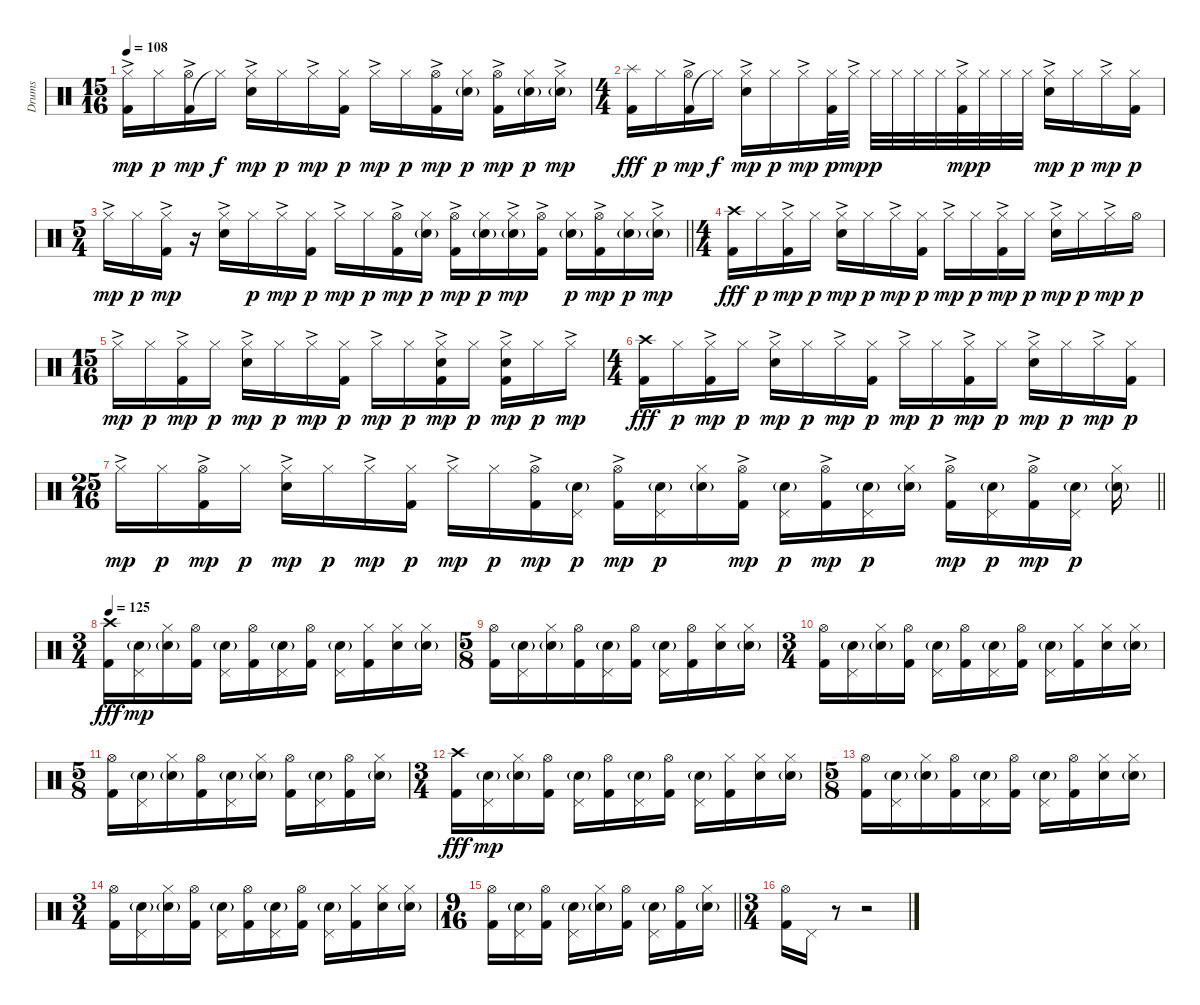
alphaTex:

\track ("Drums" "Drums") {instrument percussion}
\staff {score}
\articulation defaults
\ts (15 16)
\tempo 108
\clef neutral
\ks c
("Kick (hit) 2" "Hi-Hat (closed)"{ac}).16{dy mp} "Hi-Hat (closed)".16{dy p} ("Kick (hit) 2" "Hi-Hat (open)"{ac}).16{dy mp} "Hi-Hat (closed)"{t}.16{dy f} ("Electric Snare (hit)" "Hi-Hat (closed)"{ac}).16{dy mp} "Hi-Hat (closed)".16{dy p} "Hi-Hat (closed)"{ac}.16{dy mp} ("Kick (hit) 2" "Hi-Hat (closed)").16{dy p} "Hi-Hat (closed)"{ac}.16{dy mp} "Hi-Hat (closed)".16{dy p} ("Kick (hit) 2" "Hi-Hat (open)"{ac}).16{dy mp} ("Electric Snare (hit)"{g} "Hi-Hat (closed)").16{dy p} ("Kick (hit) 2" "Hi-Hat (open)"{ac}).16{dy mp} ("Electric Snare (hit)"{g} "Hi-Hat (closed)").16{dy p} ("Electric Snare (hit)"{g} "Hi-Hat (closed)"{ac}).16{dy mp} |
\ts (4 4)
("Kick (hit) 2" "Splash (hit)").16{dy fff} "Hi-Hat (closed)".16{dy p} ("Kick (hit) 2" "Hi-Hat (open)"{ac}).16{dy mp} "Hi-Hat (closed)"{t}.16{dy f} ("Electric Snare (hit)" "Hi-Hat (closed)"{ac}).16{dy mp} "Hi-Hat (closed)".16{dy p} "Hi-Hat (closed)"{ac}.16{dy mp} ("Kick (hit) 2" "Hi-Hat (closed)").32{dy p} "Hi-Hat (closed)"{ac}.32{dy mp} "Hi-Hat (closed)".32{dy p} "Hi-Hat (closed)".32 "Hi-Hat (closed)".32 "Hi-Hat (closed)".32 ("Kick (hit) 2" "Hi-Hat (closed)"{ac}).32{dy mp} "Hi-Hat (closed)".32{dy p} "Hi-Hat (closed)".32 "Hi-Hat (closed)".32 ("Electric Snare (hit)" "Hi-Hat (closed)"{ac}).16{dy mp} "Hi-Hat (closed)".16{dy p} "Hi-Hat (closed)"{ac}.16{dy mp} ("Kick (hit) 2" "Hi-Hat (closed)").16{dy p} |
\ts (5 4)
\barLineRight lightlight "Hi-Hat (closed)"{ac}.16{dy mp} "Hi-Hat (closed)".16{dy p}
("Kick (hit) 2" "Hi-Hat (closed)"{ac}).16{dy mp} r.16 ("Electric Snare (hit)" "Hi-Hat (closed)"{ac}).16 "Hi-Hat (closed)".16{dy p} "Hi-Hat (closed)"{ac}.16{dy mp} ("Kick (hit) 2" "Hi-Hat (closed)").16{dy p} "Hi-Hat (closed)"{ac}.16{dy mp} "Hi-Hat (closed)".16{dy p} ("Kick (hit) 2" "Hi-Hat (open)"{ac}).16{dy mp} ("Electric Snare (hit)"{g} "Hi-Hat (closed)").16{dy p} ("Kick (hit) 2" "Hi-Hat (open)"{ac}).16{dy mp} ("Electric Snare (hit)"{g} "Hi-Hat (closed)").16{dy p} ("Electric Snare (hit)"{g} "Hi-Hat (closed)"{ac}).16{dy mp} ("Kick (hit) 2" "Hi-Hat (open)"{ac}).16 ("Electric Snare (hit)"{g} "Hi-Hat (closed)").16{dy p} ("Kick (hit) 2" "Hi-Hat (open)"{ac}).16{dy mp} ("Electric Snare (hit)"{g} "Hi-Hat (closed)").16{dy p} ("Electric Snare (hit)"{g} "Hi-Hat (closed)"{ac}).16{dy mp} |
\ts (4 4)
("Kick (hit) 2" "Crash high (hit)").16{dy fff} "Hi-Hat (closed)".16{dy p} ("Kick (hit) 2" "Hi-Hat (closed)"{ac}).16{dy mp} "Hi-Hat (closed)".16{dy p} ("Electric Snare (hit)" "Hi-Hat (closed)"{ac}).16{dy mp} "Hi-Hat (closed)".16{dy p} "Hi-Hat (closed)"{ac}.16{dy mp} ("Kick (hit) 2" "Hi-Hat (closed)").16{dy p} "Hi-Hat (closed)"{ac}.16{dy mp} "Hi-Hat (closed)".16{dy p} ("Kick (hit) 2" "Hi-Hat (closed)"{ac}).16{dy mp} "Hi-Hat (closed)".16{dy p} ("Electric Snare (hit)" "Hi-Hat (closed)"{ac}).16{dy mp} "Hi-Hat (closed)".16{dy p} "Hi-Hat (closed)"{ac}.16{dy mp} "Hi-Hat (open)".16{dy p} |
\ts (15 16)
"Hi-Hat (closed)"{ac}.16{dy mp} "Hi-Hat (closed)".16{dy p} ("Kick (hit) 2" "Hi-Hat (closed)"{ac}).16{dy mp} "Hi-Hat (closed)".16{dy p} ("Electric Snare (hit)" "Hi-Hat (closed)"{ac}).16{dy mp} "Hi-Hat (closed)".16{dy p} "Hi-Hat (closed)"{ac}.16{dy mp} ("Kick (hit) 2" "Hi-Hat (closed)").16{dy p} "Hi-Hat (closed)"{ac}.16{dy mp} "Hi-Hat (closed)".16{dy p} ("Kick (hit) 2" "Electric Snare (hit)" "Hi-Hat (closed)"{ac}).16{dy mp} "Hi-Hat (closed)".16{dy p} ("Kick (hit) 2" "Electric Snare (hit)" "Hi-Hat (closed)"{ac}).16{dy mp} "Hi-Hat (closed)".16{dy p} "Hi-Hat (closed)"{ac}.16{dy mp} |
\ts (4 4)
("Kick (hit) 2" "Crash high (hit)").16{dy fff} "Hi-Hat (closed)".16{dy p} ("Kick (hit) 2" "Hi-Hat (closed)"{ac}).16{dy mp} "Hi-Hat (closed)".16{dy p} ("Electric Snare (hit)" "Hi-Hat (closed)"{ac}).16{dy mp} "Hi-Hat (closed)".16{dy p} "Hi-Hat (closed)"{ac}.16{dy mp} ("Kick (hit) 2" "Hi-Hat (closed)").16{dy p} "Hi-Hat (closed)"{ac}.16{dy mp} "Hi-Hat (closed)".16{dy p} ("Kick (hit) 2" "Hi-Hat (closed)"{ac}).16{dy mp} "Hi-Hat (closed)".16{dy p} ("Electric Snare (hit)" "Hi-Hat (closed)"{ac}).16{dy mp} "Hi-Hat (closed)".16{dy p} "Hi-Hat (closed)"{ac}.16{dy mp} ("Kick (hit) 2" "Hi-Hat (closed)").16{dy p} |
\ts (25 16)
\barLineRight lightlight "Hi-Hat (closed)"{ac}.16{dy mp} "Hi-Hat (closed)".16{dy p}
("Kick (hit) 2" "Hi-Hat (open)"{ac}).16{dy mp} "Hi-Hat (closed)".16{dy p} ("Electric Snare (hit)" "Hi-Hat (closed)"{ac}).16{dy mp} "Hi-Hat (closed)".16{dy p} "Hi-Hat (closed)"{ac}.16{dy mp} ("Kick (hit) 2" "Hi-Hat (closed)").16{dy p} "Hi-Hat (closed)"{ac}.16{dy mp} "Hi-Hat (closed)".16{dy p} ("Kick (hit) 2" "Hi-Hat (open)"{ac}).16{dy mp} ("Electric Snare (hit)"{g} "Pedal Hi-Hat (hit)").16{dy p} ("Kick (hit) 2" "Hi-Hat (open)"{ac}).16{dy mp} ("Electric Snare (hit)"{g} "Pedal Hi-Hat (hit)").16{dy p} ("Electric Snare (hit)"{g} "Hi-Hat (closed)").16 ("Kick (hit) 2" "Hi-Hat (open)"{ac}).16{dy mp} ("Electric Snare (hit)"{g} "Pedal Hi-Hat (hit)").16{dy p} ("Kick (hit) 2" "Hi-Hat (open)"{ac}).16{dy mp} ("Electric Snare (hit)"{g} "Pedal Hi-Hat (hit)").16{dy p} ("Electric Snare (hit)"{g} "Hi-Hat (closed)").16 ("Kick (hit) 2" "Hi-Hat (open)"{ac}).16{dy mp} ("Electric Snare (hit)"{g} "Pedal Hi-Hat (hit)").16{dy p} ("Kick (hit) 2" "Hi-Hat (open)"{ac}).16{dy mp} ("Electric Snare (hit)"{g} "Pedal Hi-Hat (hit)").16{dy p} ("Electric Snare (hit)"{g} "Hi-Hat (closed)").16 |
\ts (3 4)
\tempo 125
("Kick (hit) 2" "Crash high (hit)").16{dy fff} ("Electric Snare (hit)"{g} "Pedal Hi-Hat (hit)").16{dy mp} ("Electric Snare (hit)"{g} "Hi-Hat (closed)").16 ("Kick (hit) 2" "Hi-Hat (open)").16 ("Electric Snare (hit)"{g} "Pedal Hi-Hat (hit)").16 ("Kick (hit) 2" "Hi-Hat (open)").16 ("Electric Snare (hit)"{g} "Pedal Hi-Hat (hit)").16 ("Kick (hit) 2" "Hi-Hat (open)").16 ("Electric Snare (hit)"{g} "Pedal Hi-Hat (hit)").16 ("Kick (hit) 2" "Hi-Hat (closed)").16 ("Electric Snare (hit)" "Hi-Hat (closed)").16 ("Electric Snare (hit)"{g} "Hi-Hat (closed)").16 |
\ts (5 8)
("Kick (hit) 2" "Hi-Hat (open)").16 ("Electric Snare (hit)"{g} "Pedal Hi-Hat (hit)").16 ("Electric Snare (hit)"{g} "Hi-Hat (closed)").16 ("Kick (hit) 2" "Hi-Hat (open)").16 ("Electric Snare (hit)"{g} "Pedal Hi-Hat (hit)").16 ("Kick (hit) 2" "Hi-Hat (open)").16 ("Electric Snare (hit)"{g} "Pedal Hi-Hat (hit)").16 ("Kick (hit) 2" "Hi-Hat (open)").16 ("Electric Snare (hit)" "Hi-Hat (closed)").16 ("Electric Snare (hit)"{g} "Hi-Hat (closed)").16 |
\ts (3 4)
("Kick (hit) 2" "Hi-Hat (open)").16 ("Electric Snare (hit)"{g} "Pedal Hi-Hat (hit)").16 ("Electric Snare (hit)"{g} "Hi-Hat (closed)").16 ("Kick (hit) 2" "Hi-Hat (open)").16 ("Electric Snare (hit)"{g} "Pedal Hi-Hat (hit)").16 ("Kick (hit) 2" "Hi-Hat (open)").16 ("Electric Snare (hit)"{g} "Pedal Hi-Hat (hit)").16 ("Kick (hit) 2" "Hi-Hat (open)").16 ("Electric Snare (hit)"{g} "Pedal Hi-Hat (hit)").16 ("Kick (hit) 2" "Hi-Hat (closed)").16 ("Electric Snare (hit)" "Hi-Hat (closed)").16 ("Electric Snare (hit)"{g} "Hi-Hat (closed)").16 |
\ts (5 8)
("Kick (hit) 2" "Hi-Hat (open)").16 ("Electric Snare (hit)"{g} "Pedal Hi-Hat (hit)").16 ("Electric Snare (hit)"{g} "Hi-Hat (closed)").16 ("Kick (hit) 2" "Hi-Hat (open)").16 ("Electric Snare (hit)"{g} "Pedal Hi-Hat (hit)").16 ("Electric Snare (hit)"{g} "Hi-Hat (closed)").16 ("Kick (hit) 2" "Hi-Hat (open)").16 ("Electric Snare (hit)"{g} "Pedal Hi-Hat (hit)").16 ("Kick (hit) 2" "Hi-Hat (open)").16 ("Electric Snare (hit)"{g} "Hi-Hat (closed)").16 |
\ts (3 4)
("Kick (hit) 2" "Crash high (hit)").16{dy fff} ("Electric Snare (hit)"{g} "Pedal Hi-Hat (hit)").16{dy mp} ("Electric Snare (hit)"{g} "Hi-Hat (closed)").16 ("Kick (hit) 2" "Hi-Hat (open)").16 ("Electric Snare (hit)"{g} "Pedal Hi-Hat (hit)").16 ("Kick (hit) 2" "Hi-Hat (open)").16 ("Electric Snare (hit)"{g} "Pedal Hi-Hat (hit)").16 ("Kick (hit) 2" "Hi-Hat (open)").16 ("Electric Snare (hit)"{g} "Pedal Hi-Hat (hit)").16 ("Kick (hit) 2" "Hi-Hat (closed)").16 ("Electric Snare (hit)" "Hi-Hat (closed)").16 ("Electric Snare (hit)"{g} "Hi-Hat (closed)").16 |
\ts (5 8)
("Kick (hit) 2" "Hi-Hat (open)").16 ("Electric Snare (hit)"{g} "Pedal Hi-Hat (hit)").16 ("Electric Snare (hit)"{g} "Hi-Hat (closed)").16 ("Kick (hit) 2" "Hi-Hat (open)").16 ("Electric Snare (hit)"{g} "Pedal Hi-Hat (hit)").16 ("Kick (hit) 2" "Hi-Hat (open)").16 ("Electric Snare (hit)"{g} "Pedal Hi-Hat (hit)").16 ("Kick (hit) 2" "Hi-Hat (open)").16 ("Electric Snare (hit)" "Hi-Hat (closed)").16 ("Electric Snare (hit)"{g} "Hi-Hat (closed)").16 |
\ts (3 4)
("Kick (hit) 2" "Hi-Hat (open)").16 ("Electric Snare (hit)"{g} "Pedal Hi-Hat (hit)").16 ("Electric Snare (hit)"{g} "Hi-Hat (closed)").16 ("Kick (hit) 2" "Hi-Hat (open)").16 ("Electric Snare (hit)"{g} "Pedal Hi-Hat (hit)").16 ("Kick (hit) 2" "Hi-Hat (open)").16 ("Electric Snare (hit)"{g} "Pedal Hi-Hat (hit)").16 ("Kick (hit) 2" "Hi-Hat (open)").16 ("Electric Snare (hit)"{g} "Pedal Hi-Hat (hit)").16 ("Kick (hit) 2" "Hi-Hat (closed)").16 ("Electric Snare (hit)" "Hi-Hat (closed)").16 ("Electric Snare (hit)"{g} "Hi-Hat (closed)").16 |
\ts (9 16)
\barLineRight lightlight
("Kick (hit) 2" "Hi-Hat (open)").16 ("Electric Snare (hit)"{g} "Pedal Hi-Hat (hit)").16 ("Kick (hit) 2" "Hi-Hat (open)").16 ("Electric Snare (hit)"{g} "Pedal Hi-Hat (hit)").16 ("Electric Snare (hit)"{g} "Hi-Hat (closed)").16 ("Kick (hit) 2" "Hi-Hat (open)").16 ("Electric Snare (hit)"{g} "Pedal Hi-Hat (hit)").16 ("Kick (hit) 2" "Hi-Hat (open)").16 ("Electric Snare (hit)"{g} "Hi-Hat (closed)").16 |
\ts (3 4)
("Kick (hit) 2" "Hi-Hat (open)").16 "Pedal Hi-Hat (hit)".16 r.8 r.2
